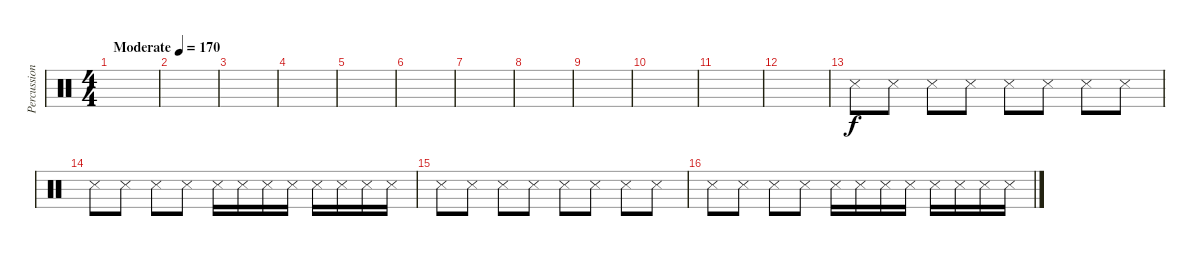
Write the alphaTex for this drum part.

\track ("Percussion" "Percussion") {instrument percussion}
\staff {score}
\articulation defaults
\ts (4 4)
\tempo (170 "Moderate")
\clef neutral
\ks c
|
|
|
|
|
|
|
|
|
|
|
|
"Snare (side stick) 3".8 "Snare (side stick) 3".8 "Snare (side stick) 3".8 "Snare (side stick) 3".8 "Snare (side stick) 3".8 "Snare (side stick) 3".8 "Snare (side stick) 3".8 "Snare (side stick) 3".8 |
"Snare (side stick) 3".8 "Snare (side stick) 3".8 "Snare (side stick) 3".8 "Snare (side stick) 3".8 "Snare (side stick) 3".16 "Snare (side stick) 3".16 "Snare (side stick) 3".16 "Snare (side stick) 3".16 "Snare (side stick) 3".16 "Snare (side stick) 3".16 "Snare (side stick) 3".16 "Snare (side stick) 3".16 |
"Snare (side stick) 3".8 "Snare (side stick) 3".8 "Snare (side stick) 3".8 "Snare (side stick) 3".8 "Snare (side stick) 3".8 "Snare (side stick) 3".8 "Snare (side stick) 3".8 "Snare (side stick) 3".8 |
"Snare (side stick) 3".8 "Snare (side stick) 3".8 "Snare (side stick) 3".8 "Snare (side stick) 3".8 "Snare (side stick) 3".16 "Snare (side stick) 3".16 "Snare (side stick) 3".16 "Snare (side stick) 3".16 "Snare (side stick) 3".16 "Snare (side stick) 3".16 "Snare (side stick) 3".16 "Snare (side stick) 3".16
